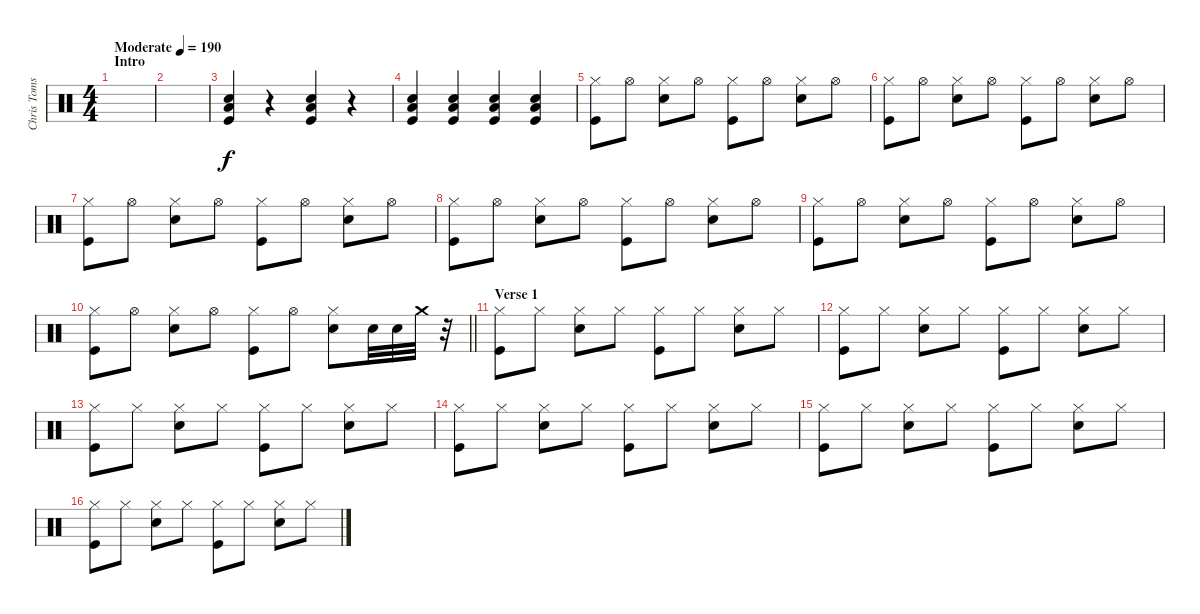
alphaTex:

\track ("Chris Tomson - Drums" "Chris Toms") {instrument percussion}
\staff {score}
\articulation defaults
\ts (4 4)
\section ("" "Intro")
\tempo (190 "Moderate")
\clef neutral
\ks c
|
|
("Kick (hit)" "Snare (hit) 2" "Low Floor Tom (hit)").4 r.4 ("Kick (hit)" "Snare (hit) 2" "Low Floor Tom (hit)").4 r.4 |
("Kick (hit)" "Snare (hit) 2" "Low Floor Tom (hit)").4 ("Kick (hit)" "Snare (hit) 2" "Low Floor Tom (hit)").4 ("Kick (hit)" "Snare (hit) 2" "Low Floor Tom (hit)").4 ("Kick (hit)" "Snare (hit) 2" "Low Floor Tom (hit)").4 |
("Kick (hit)" "Hi-Hat (closed)").8 "Hi-Hat (open)".8 ("Snare (hit) 2" "Hi-Hat (closed)").8 "Hi-Hat (open)".8 ("Kick (hit)" "Hi-Hat (closed)").8 "Hi-Hat (open)".8 ("Snare (hit) 2" "Hi-Hat (closed)").8 "Hi-Hat (open)".8 |
("Kick (hit)" "Hi-Hat (closed)").8 "Hi-Hat (open)".8 ("Snare (hit) 2" "Hi-Hat (closed)").8 "Hi-Hat (open)".8 ("Kick (hit)" "Hi-Hat (closed)").8 "Hi-Hat (open)".8 ("Snare (hit) 2" "Hi-Hat (closed)").8 "Hi-Hat (open)".8 |
("Kick (hit)" "Hi-Hat (closed)").8 "Hi-Hat (open)".8 ("Snare (hit) 2" "Hi-Hat (closed)").8 "Hi-Hat (open)".8 ("Kick (hit)" "Hi-Hat (closed)").8 "Hi-Hat (open)".8 ("Snare (hit) 2" "Hi-Hat (closed)").8 "Hi-Hat (open)".8 |
("Kick (hit)" "Hi-Hat (closed)").8 "Hi-Hat (open)".8 ("Snare (hit) 2" "Hi-Hat (closed)").8 "Hi-Hat (open)".8 ("Kick (hit)" "Hi-Hat (closed)").8 "Hi-Hat (open)".8 ("Snare (hit) 2" "Hi-Hat (closed)").8 "Hi-Hat (open)".8 |
("Kick (hit)" "Hi-Hat (closed)").8 "Hi-Hat (open)".8 ("Snare (hit) 2" "Hi-Hat (closed)").8 "Hi-Hat (open)".8 ("Kick (hit)" "Hi-Hat (closed)").8 "Hi-Hat (open)".8 ("Snare (hit) 2" "Hi-Hat (closed)").8 "Hi-Hat (open)".8 |
\barLineRight lightlight
("Kick (hit)" "Hi-Hat (closed)").8 "Hi-Hat (open)".8 ("Snare (hit) 2" "Hi-Hat (closed)").8 "Hi-Hat (open)".8 ("Kick (hit)" "Hi-Hat (closed)").8 "Hi-Hat (open)".8 ("Snare (hit) 2" "Hi-Hat (closed)").8 "Snare (hit) 2".32 "Snare (hit) 2".32 "Crash medium (hit)".32 r.32 |
\section ("" "Verse 1")
("Kick (hit)" "Hi-Hat (closed)").8 "Hi-Hat (closed)".8 ("Snare (hit) 2" "Hi-Hat (closed)").8 "Hi-Hat (closed)".8 ("Kick (hit)" "Hi-Hat (closed)").8 "Hi-Hat (closed)".8 ("Snare (hit) 2" "Hi-Hat (closed)").8 "Hi-Hat (closed)".8 |
("Kick (hit)" "Hi-Hat (closed)").8 "Hi-Hat (closed)".8 ("Snare (hit) 2" "Hi-Hat (closed)").8 "Hi-Hat (closed)".8 ("Kick (hit)" "Hi-Hat (closed)").8 "Hi-Hat (closed)".8 ("Snare (hit) 2" "Hi-Hat (closed)").8 "Hi-Hat (closed)".8 |
("Kick (hit)" "Hi-Hat (closed)").8 "Hi-Hat (closed)".8 ("Snare (hit) 2" "Hi-Hat (closed)").8 "Hi-Hat (closed)".8 ("Kick (hit)" "Hi-Hat (closed)").8 "Hi-Hat (closed)".8 ("Snare (hit) 2" "Hi-Hat (closed)").8 "Hi-Hat (closed)".8 |
("Kick (hit)" "Hi-Hat (closed)").8 "Hi-Hat (closed)".8 ("Snare (hit) 2" "Hi-Hat (closed)").8 "Hi-Hat (closed)".8 ("Kick (hit)" "Hi-Hat (closed)").8 "Hi-Hat (closed)".8 ("Snare (hit) 2" "Hi-Hat (closed)").8 "Hi-Hat (closed)".8 |
("Kick (hit)" "Hi-Hat (closed)").8 "Hi-Hat (closed)".8 ("Snare (hit) 2" "Hi-Hat (closed)").8 "Hi-Hat (closed)".8 ("Kick (hit)" "Hi-Hat (closed)").8 "Hi-Hat (closed)".8 ("Snare (hit) 2" "Hi-Hat (closed)").8 "Hi-Hat (closed)".8 |
("Kick (hit)" "Hi-Hat (closed)").8 "Hi-Hat (closed)".8 ("Snare (hit) 2" "Hi-Hat (closed)").8 "Hi-Hat (closed)".8 ("Kick (hit)" "Hi-Hat (closed)").8 "Hi-Hat (closed)".8 ("Snare (hit) 2" "Hi-Hat (closed)").8 "Hi-Hat (closed)".8
